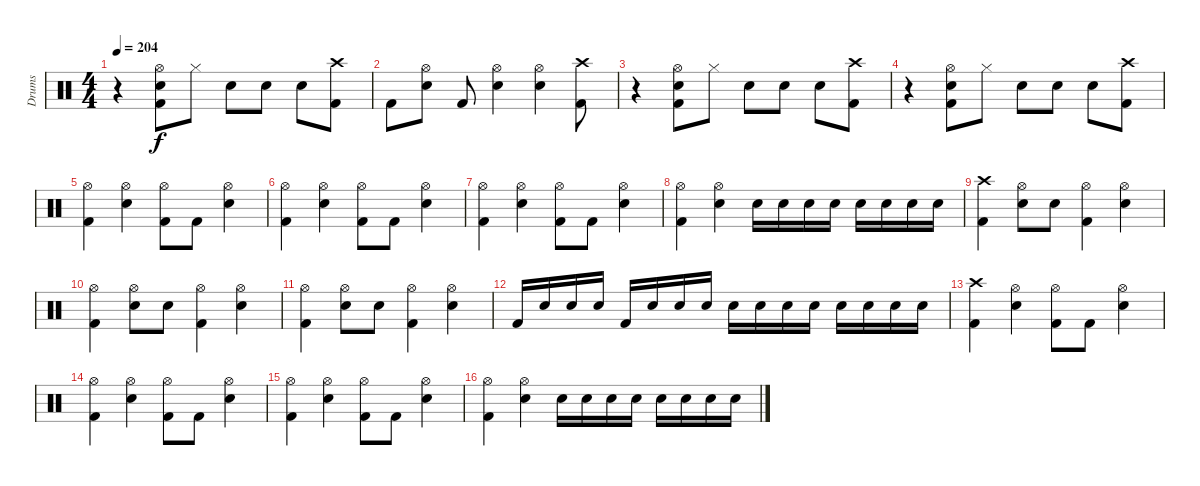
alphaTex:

\track ("Drums" "Drums") {instrument percussion}
\staff {score}
\articulation defaults
\ts (4 4)
\tempo 204
\clef neutral
\ks c
r.4{dy f} ("Electric Snare (hit)" "Kick (hit) 2" "Hi-Hat (open)").8 "Hi-Hat (closed)".8 "Snare (hit) 2".8 "Snare (hit) 2".8 "Snare (hit) 2".8 ("Kick (hit) 2" "Crash high (hit)").8 |
"Kick (hit) 2".8 ("Electric Snare (hit)" "Hi-Hat (open)").8 "Kick (hit) 2".8 ("Electric Snare (hit)" "Hi-Hat (open)").4 ("Electric Snare (hit)" "Hi-Hat (open)").4 ("Crash high (hit)" "Kick (hit) 2").8 |
r.4 ("Electric Snare (hit)" "Kick (hit) 2" "Hi-Hat (open)").8 "Hi-Hat (closed)".8 "Snare (hit) 2".8 "Snare (hit) 2".8 "Snare (hit) 2".8 ("Kick (hit) 2" "Crash high (hit)").8 |
r.4 ("Electric Snare (hit)" "Kick (hit) 2" "Hi-Hat (open)").8 "Hi-Hat (closed)".8 "Snare (hit) 2".8 "Snare (hit) 2".8 "Snare (hit) 2".8 ("Kick (hit) 2" "Crash high (hit)").8 |
("Hi-Hat (open)" "Kick (hit) 2").4 ("Hi-Hat (open)" "Electric Snare (hit)").4 ("Hi-Hat (open)" "Kick (hit) 2").8 "Kick (hit) 2".8 ("Hi-Hat (open)" "Electric Snare (hit)").4 |
("Hi-Hat (open)" "Kick (hit) 2").4 ("Hi-Hat (open)" "Electric Snare (hit)").4 ("Hi-Hat (open)" "Kick (hit) 2").8 "Kick (hit) 2".8 ("Hi-Hat (open)" "Electric Snare (hit)").4 |
("Hi-Hat (open)" "Kick (hit) 2").4 ("Hi-Hat (open)" "Electric Snare (hit)").4 ("Hi-Hat (open)" "Kick (hit) 2").8 "Kick (hit) 2".8 ("Hi-Hat (open)" "Electric Snare (hit)").4 |
("Hi-Hat (open)" "Kick (hit) 2").4 ("Hi-Hat (open)" "Electric Snare (hit)").4 "Electric Snare (hit)".16 "Electric Snare (hit)".16 "Electric Snare (hit)".16 "Electric Snare (hit)".16 "Electric Snare (hit)".16 "Electric Snare (hit)".16 "Electric Snare (hit)".16 "Electric Snare (hit)".16 |
("Crash high (hit)" "Kick (hit) 2").4 ("Hi-Hat (open)" "Electric Snare (hit)").8 "Electric Snare (hit)".8 ("Hi-Hat (open)" "Kick (hit) 2").4 ("Hi-Hat (open)" "Electric Snare (hit)").4 |
("Hi-Hat (open)" "Kick (hit) 2").4 ("Hi-Hat (open)" "Electric Snare (hit)").8 "Electric Snare (hit)".8 ("Hi-Hat (open)" "Kick (hit) 2").4 ("Hi-Hat (open)" "Electric Snare (hit)").4 |
("Hi-Hat (open)" "Kick (hit) 2").4 ("Hi-Hat (open)" "Electric Snare (hit)").8 "Electric Snare (hit)".8 ("Hi-Hat (open)" "Kick (hit) 2").4 ("Hi-Hat (open)" "Electric Snare (hit)").4 |
"Kick (hit) 2".16 "Electric Snare (hit)".16 "Electric Snare (hit)".16 "Electric Snare (hit)".16 "Kick (hit) 2".16 "Electric Snare (hit)".16 "Electric Snare (hit)".16 "Electric Snare (hit)".16 "Electric Snare (hit)".16 "Electric Snare (hit)".16 "Electric Snare (hit)".16 "Electric Snare (hit)".16 "Electric Snare (hit)".16 "Electric Snare (hit)".16 "Electric Snare (hit)".16 "Electric Snare (hit)".16 |
("Crash high (hit)" "Kick (hit) 2").4 ("Hi-Hat (open)" "Electric Snare (hit)").4 ("Hi-Hat (open)" "Kick (hit) 2").8 "Kick (hit) 2".8 ("Hi-Hat (open)" "Electric Snare (hit)").4 |
("Hi-Hat (open)" "Kick (hit) 2").4 ("Hi-Hat (open)" "Electric Snare (hit)").4 ("Hi-Hat (open)" "Kick (hit) 2").8 "Kick (hit) 2".8 ("Hi-Hat (open)" "Electric Snare (hit)").4 |
("Hi-Hat (open)" "Kick (hit) 2").4 ("Hi-Hat (open)" "Electric Snare (hit)").4 ("Hi-Hat (open)" "Kick (hit) 2").8 "Kick (hit) 2".8 ("Hi-Hat (open)" "Electric Snare (hit)").4 |
("Hi-Hat (open)" "Kick (hit) 2").4 ("Hi-Hat (open)" "Electric Snare (hit)").4 "Electric Snare (hit)".16 "Electric Snare (hit)".16 "Electric Snare (hit)".16 "Electric Snare (hit)".16 "Electric Snare (hit)".16 "Electric Snare (hit)".16 "Electric Snare (hit)".16 "Electric Snare (hit)".16
